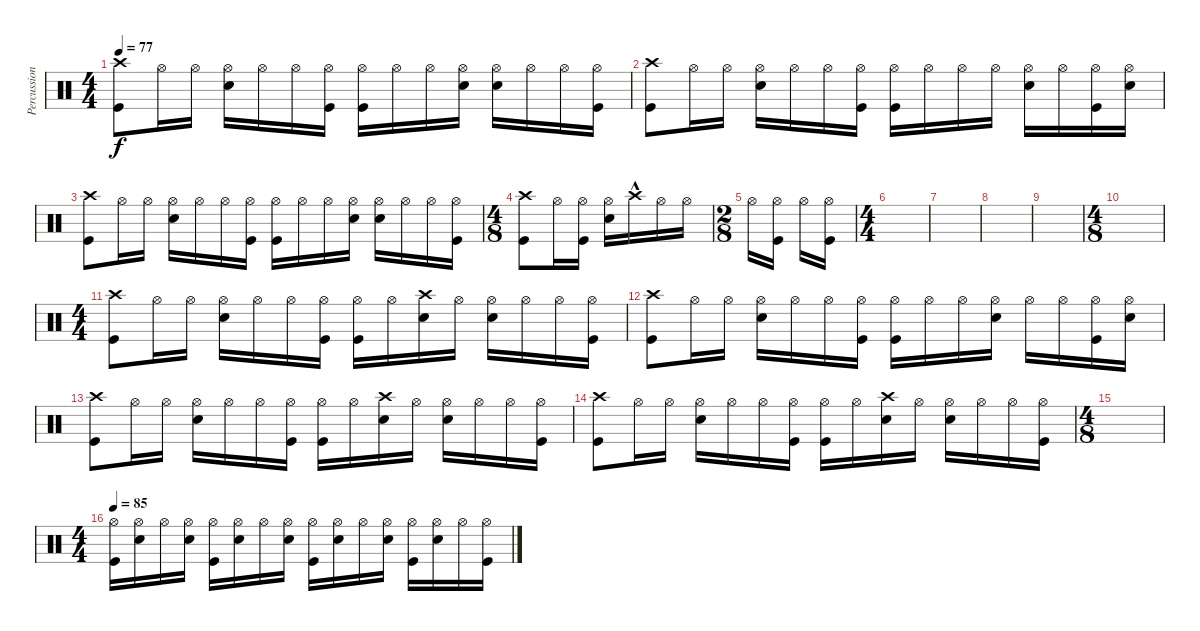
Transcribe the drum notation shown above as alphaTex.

\track ("Percussion" "Percussion") {instrument percussion}
\staff {score}
\articulation defaults
\ts (4 4)
\tempo 77
\clef neutral
\ks c
("Crash high (hit)" "Kick (hit)").8{dy f} "Hi-Hat (open)".16 "Hi-Hat (open)".16 ("Hi-Hat (open)" "Snare (hit) 2").16 "Hi-Hat (open)".16 "Hi-Hat (open)".16 ("Hi-Hat (open)" "Kick (hit)").16 ("Hi-Hat (open)" "Kick (hit)").16 "Hi-Hat (open)".16 "Hi-Hat (open)".16 ("Hi-Hat (open)" "Snare (hit) 2").16 ("Hi-Hat (open)" "Snare (hit) 2").16 "Hi-Hat (open)".16 "Hi-Hat (open)".16 ("Hi-Hat (open)" "Kick (hit)").16 |
("Crash high (hit)" "Kick (hit)").8 "Hi-Hat (open)".16 "Hi-Hat (open)".16 ("Hi-Hat (open)" "Snare (hit) 2").16 "Hi-Hat (open)".16 "Hi-Hat (open)".16 ("Hi-Hat (open)" "Kick (hit)").16 ("Hi-Hat (open)" "Kick (hit)").16 "Hi-Hat (open)".16 "Hi-Hat (open)".16 "Hi-Hat (open)".16 ("Hi-Hat (open)" "Snare (hit) 2").16 "Hi-Hat (open)".16 ("Hi-Hat (open)" "Kick (hit)").16 ("Hi-Hat (open)" "Snare (hit) 2").16 |
("Crash high (hit)" "Kick (hit)").8 "Hi-Hat (open)".16 "Hi-Hat (open)".16 ("Hi-Hat (open)" "Snare (hit) 2").16 "Hi-Hat (open)".16 "Hi-Hat (open)".16 ("Hi-Hat (open)" "Kick (hit)").16 ("Hi-Hat (open)" "Kick (hit)").16 "Hi-Hat (open)".16 "Hi-Hat (open)".16 ("Hi-Hat (open)" "Snare (hit) 2").16 ("Hi-Hat (open)" "Snare (hit) 2").16 "Hi-Hat (open)".16 "Hi-Hat (open)".16 ("Hi-Hat (open)" "Kick (hit)").16 |
\ts (4 8)
("Crash high (hit)" "Kick (hit)").8 "Hi-Hat (open)".16 ("Hi-Hat (open)" "Kick (hit)").16 ("Hi-Hat (open)" "Snare (hit) 2").16 "Crash high (hit)"{hac}.16 "Hi-Hat (open)".16 "Hi-Hat (open)".16 |
\ts (2 8)
"Hi-Hat (open)".16 ("Hi-Hat (open)" "Kick (hit)").16 "Hi-Hat (open)".16 ("Hi-Hat (open)" "Kick (hit)").16 |
\ts (4 4)
|
|
|
|
\ts (4 8)
|
\ts (4 4)
("Crash high (hit)" "Kick (hit)").8 "Hi-Hat (open)".16 "Hi-Hat (open)".16 ("Hi-Hat (open)" "Snare (hit) 2").16 "Hi-Hat (open)".16 "Hi-Hat (open)".16 ("Hi-Hat (open)" "Kick (hit)").16 ("Hi-Hat (open)" "Kick (hit)").16 "Hi-Hat (open)".16 ("Crash high (hit)" "Snare (hit) 2").16 "Hi-Hat (open)".16 ("Hi-Hat (open)" "Snare (hit) 2").16 "Hi-Hat (open)".16 "Hi-Hat (open)".16 ("Hi-Hat (open)" "Kick (hit)").16 |
("Crash high (hit)" "Kick (hit)").8 "Hi-Hat (open)".16 "Hi-Hat (open)".16 ("Hi-Hat (open)" "Snare (hit) 2").16 "Hi-Hat (open)".16 "Hi-Hat (open)".16 ("Hi-Hat (open)" "Kick (hit)").16 ("Hi-Hat (open)" "Kick (hit)").16 "Hi-Hat (open)".16 "Hi-Hat (open)".16 ("Hi-Hat (open)" "Snare (hit) 2").16 "Hi-Hat (open)".16 "Hi-Hat (open)".16 ("Hi-Hat (open)" "Kick (hit)").16 ("Hi-Hat (open)" "Snare (hit) 2").16 |
("Crash high (hit)" "Kick (hit)").8 "Hi-Hat (open)".16 "Hi-Hat (open)".16 ("Hi-Hat (open)" "Snare (hit) 2").16 "Hi-Hat (open)".16 "Hi-Hat (open)".16 ("Hi-Hat (open)" "Kick (hit)").16 ("Hi-Hat (open)" "Kick (hit)").16 "Hi-Hat (open)".16 ("Crash high (hit)" "Snare (hit) 2").16 "Hi-Hat (open)".16 ("Hi-Hat (open)" "Snare (hit) 2").16 "Hi-Hat (open)".16 "Hi-Hat (open)".16 ("Hi-Hat (open)" "Kick (hit)").16 |
("Crash high (hit)" "Kick (hit)").8 "Hi-Hat (open)".16 "Hi-Hat (open)".16 ("Hi-Hat (open)" "Snare (hit) 2").16 "Hi-Hat (open)".16 "Hi-Hat (open)".16 ("Hi-Hat (open)" "Kick (hit)").16 ("Hi-Hat (open)" "Kick (hit)").16 "Hi-Hat (open)".16 ("Crash high (hit)" "Snare (hit) 2").16 "Hi-Hat (open)".16 ("Hi-Hat (open)" "Snare (hit) 2").16 "Hi-Hat (open)".16 "Hi-Hat (open)".16 ("Hi-Hat (open)" "Kick (hit)").16 |
\ts (4 8)
|
\ts (4 4)
\tempo 85
("Hi-Hat (open)" "Kick (hit)").16 ("Hi-Hat (open)" "Snare (hit) 2").16 "Hi-Hat (open)".16 ("Hi-Hat (open)" "Snare (hit) 2").16 ("Hi-Hat (open)" "Kick (hit)").16 ("Hi-Hat (open)" "Snare (hit) 2").16 "Hi-Hat (open)".16 ("Hi-Hat (open)" "Snare (hit) 2").16 ("Hi-Hat (open)" "Kick (hit)").16 ("Hi-Hat (open)" "Snare (hit) 2").16 "Hi-Hat (open)".16 ("Hi-Hat (open)" "Snare (hit) 2").16 ("Hi-Hat (open)" "Kick (hit)").16 ("Hi-Hat (open)" "Snare (hit) 2").16 "Hi-Hat (open)".16 ("Hi-Hat (open)" "Kick (hit)").16
